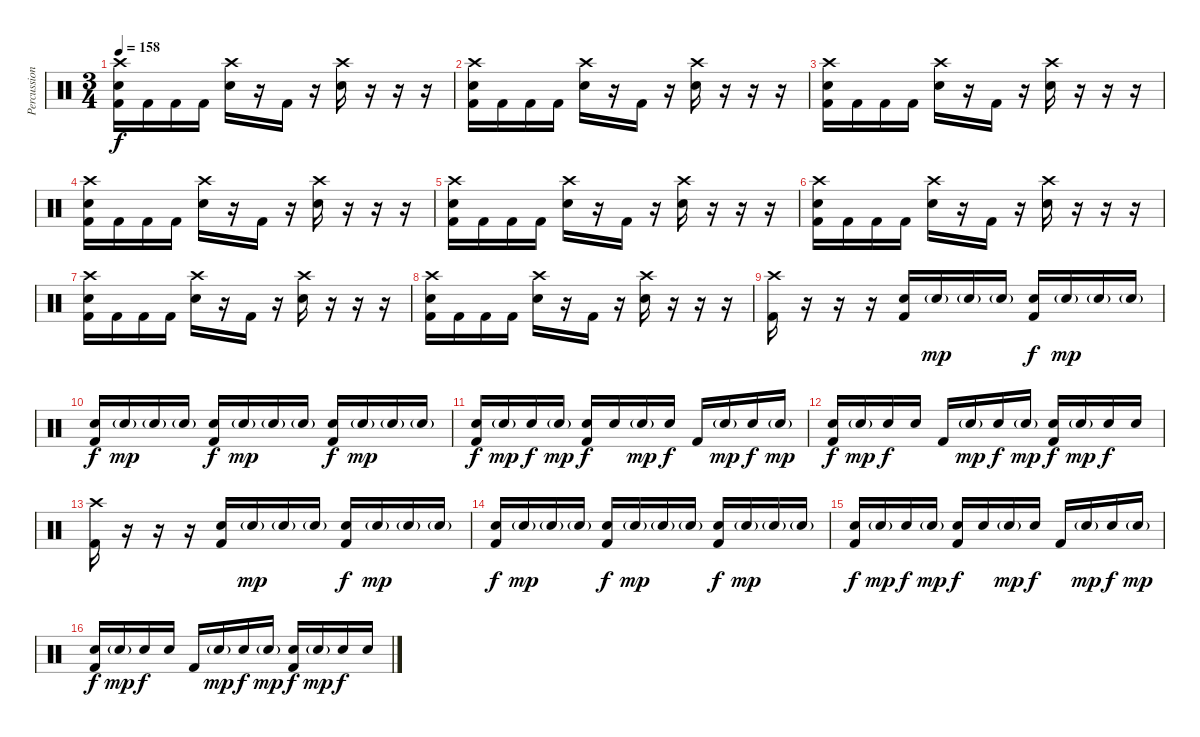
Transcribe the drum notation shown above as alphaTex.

\track ("Percussion" "Percussion") {instrument percussion}
\staff {score}
\articulation defaults
\ts (3 4)
\tempo 158
\clef neutral
\ks c
("Crash high (hit)" "Electric Snare (hit)" "Kick (hit) 2").16{dy f} "Kick (hit) 2".16 "Kick (hit) 2".16 "Kick (hit) 2".16 ("Crash high (hit)" "Electric Snare (hit)").16 r.16 "Kick (hit) 2".16 r.16 ("Crash high (hit)" "Electric Snare (hit)").16 r.16 r.16 r.16 |
("Crash high (hit)" "Electric Snare (hit)" "Kick (hit) 2").16 "Kick (hit) 2".16 "Kick (hit) 2".16 "Kick (hit) 2".16 ("Crash high (hit)" "Electric Snare (hit)").16 r.16 "Kick (hit) 2".16 r.16 ("Crash high (hit)" "Electric Snare (hit)").16 r.16 r.16 r.16 |
("Crash high (hit)" "Electric Snare (hit)" "Kick (hit) 2").16 "Kick (hit) 2".16 "Kick (hit) 2".16 "Kick (hit) 2".16 ("Crash high (hit)" "Electric Snare (hit)").16 r.16 "Kick (hit) 2".16 r.16 ("Crash high (hit)" "Electric Snare (hit)").16 r.16 r.16 r.16 |
("Crash high (hit)" "Electric Snare (hit)" "Kick (hit) 2").16 "Kick (hit) 2".16 "Kick (hit) 2".16 "Kick (hit) 2".16 ("Crash high (hit)" "Electric Snare (hit)").16 r.16 "Kick (hit) 2".16 r.16 ("Crash high (hit)" "Electric Snare (hit)").16 r.16 r.16 r.16 |
("Crash high (hit)" "Electric Snare (hit)" "Kick (hit) 2").16 "Kick (hit) 2".16 "Kick (hit) 2".16 "Kick (hit) 2".16 ("Crash high (hit)" "Electric Snare (hit)").16 r.16 "Kick (hit) 2".16 r.16 ("Crash high (hit)" "Electric Snare (hit)").16 r.16 r.16 r.16 |
("Crash high (hit)" "Electric Snare (hit)" "Kick (hit) 2").16 "Kick (hit) 2".16 "Kick (hit) 2".16 "Kick (hit) 2".16 ("Crash high (hit)" "Electric Snare (hit)").16 r.16 "Kick (hit) 2".16 r.16 ("Crash high (hit)" "Electric Snare (hit)").16 r.16 r.16 r.16 |
("Crash high (hit)" "Electric Snare (hit)" "Kick (hit) 2").16 "Kick (hit) 2".16 "Kick (hit) 2".16 "Kick (hit) 2".16 ("Crash high (hit)" "Electric Snare (hit)").16 r.16 "Kick (hit) 2".16 r.16 ("Crash high (hit)" "Electric Snare (hit)").16 r.16 r.16 r.16 |
("Crash high (hit)" "Electric Snare (hit)" "Kick (hit) 2").16 "Kick (hit) 2".16 "Kick (hit) 2".16 "Kick (hit) 2".16 ("Crash high (hit)" "Electric Snare (hit)").16 r.16 "Kick (hit) 2".16 r.16 ("Crash high (hit)" "Electric Snare (hit)").16 r.16 r.16 r.16 |
("Crash high (hit)" "Kick (hit) 2").16 r.16 r.16 r.16 ("Electric Snare (hit)" "Kick (hit) 2").16 "Electric Snare (hit)"{g}.16{dy mp} "Electric Snare (hit)"{g}.16 "Electric Snare (hit)"{g}.16 ("Electric Snare (hit)" "Kick (hit) 2").16{dy f} "Electric Snare (hit)"{g}.16{dy mp} "Electric Snare (hit)"{g}.16 "Electric Snare (hit)"{g}.16 |
("Electric Snare (hit)" "Kick (hit) 2").16{dy f} "Electric Snare (hit)"{g}.16{dy mp} "Electric Snare (hit)"{g}.16 "Electric Snare (hit)"{g}.16 ("Electric Snare (hit)" "Kick (hit) 2").16{dy f} "Electric Snare (hit)"{g}.16{dy mp} "Electric Snare (hit)"{g}.16 "Electric Snare (hit)"{g}.16 ("Electric Snare (hit)" "Kick (hit) 2").16{dy f} "Electric Snare (hit)"{g}.16{dy mp} "Electric Snare (hit)"{g}.16 "Electric Snare (hit)"{g}.16 |
("Electric Snare (hit)" "Kick (hit) 2").16{dy f} "Electric Snare (hit)"{g}.16{dy mp} "Electric Snare (hit)".16{dy f} "Electric Snare (hit)"{g}.16{dy mp} ("Electric Snare (hit)" "Kick (hit) 2").16{dy f} "Electric Snare (hit)".16 "Electric Snare (hit)"{g}.16{dy mp} "Electric Snare (hit)".16{dy f} "Kick (hit) 2".16 "Electric Snare (hit)"{g}.16{dy mp} "Electric Snare (hit)".16{dy f} "Electric Snare (hit)"{g}.16{dy mp} |
("Electric Snare (hit)" "Kick (hit) 2").16{dy f} "Electric Snare (hit)"{g}.16{dy mp} "Electric Snare (hit)".16{dy f} "Electric Snare (hit)".16 "Kick (hit) 2".16 "Electric Snare (hit)"{g}.16{dy mp} "Electric Snare (hit)".16{dy f} "Electric Snare (hit)"{g}.16{dy mp} ("Electric Snare (hit)" "Kick (hit) 2").16{dy f} "Electric Snare (hit)"{g}.16{dy mp} "Electric Snare (hit)".16{dy f} "Electric Snare (hit)".16 |
("Crash high (hit)" "Kick (hit) 2").16 r.16 r.16 r.16 ("Electric Snare (hit)" "Kick (hit) 2").16 "Electric Snare (hit)"{g}.16{dy mp} "Electric Snare (hit)"{g}.16 "Electric Snare (hit)"{g}.16 ("Electric Snare (hit)" "Kick (hit) 2").16{dy f} "Electric Snare (hit)"{g}.16{dy mp} "Electric Snare (hit)"{g}.16 "Electric Snare (hit)"{g}.16 |
("Electric Snare (hit)" "Kick (hit) 2").16{dy f} "Electric Snare (hit)"{g}.16{dy mp} "Electric Snare (hit)"{g}.16 "Electric Snare (hit)"{g}.16 ("Electric Snare (hit)" "Kick (hit) 2").16{dy f} "Electric Snare (hit)"{g}.16{dy mp} "Electric Snare (hit)"{g}.16 "Electric Snare (hit)"{g}.16 ("Electric Snare (hit)" "Kick (hit) 2").16{dy f} "Electric Snare (hit)"{g}.16{dy mp} "Electric Snare (hit)"{g}.16 "Electric Snare (hit)"{g}.16 |
("Electric Snare (hit)" "Kick (hit) 2").16{dy f} "Electric Snare (hit)"{g}.16{dy mp} "Electric Snare (hit)".16{dy f} "Electric Snare (hit)"{g}.16{dy mp} ("Electric Snare (hit)" "Kick (hit) 2").16{dy f} "Electric Snare (hit)".16 "Electric Snare (hit)"{g}.16{dy mp} "Electric Snare (hit)".16{dy f} "Kick (hit) 2".16 "Electric Snare (hit)"{g}.16{dy mp} "Electric Snare (hit)".16{dy f} "Electric Snare (hit)"{g}.16{dy mp} |
("Electric Snare (hit)" "Kick (hit) 2").16{dy f} "Electric Snare (hit)"{g}.16{dy mp} "Electric Snare (hit)".16{dy f} "Electric Snare (hit)".16 "Kick (hit) 2".16 "Electric Snare (hit)"{g}.16{dy mp} "Electric Snare (hit)".16{dy f} "Electric Snare (hit)"{g}.16{dy mp} ("Electric Snare (hit)" "Kick (hit) 2").16{dy f} "Electric Snare (hit)"{g}.16{dy mp} "Electric Snare (hit)".16{dy f} "Electric Snare (hit)".16
